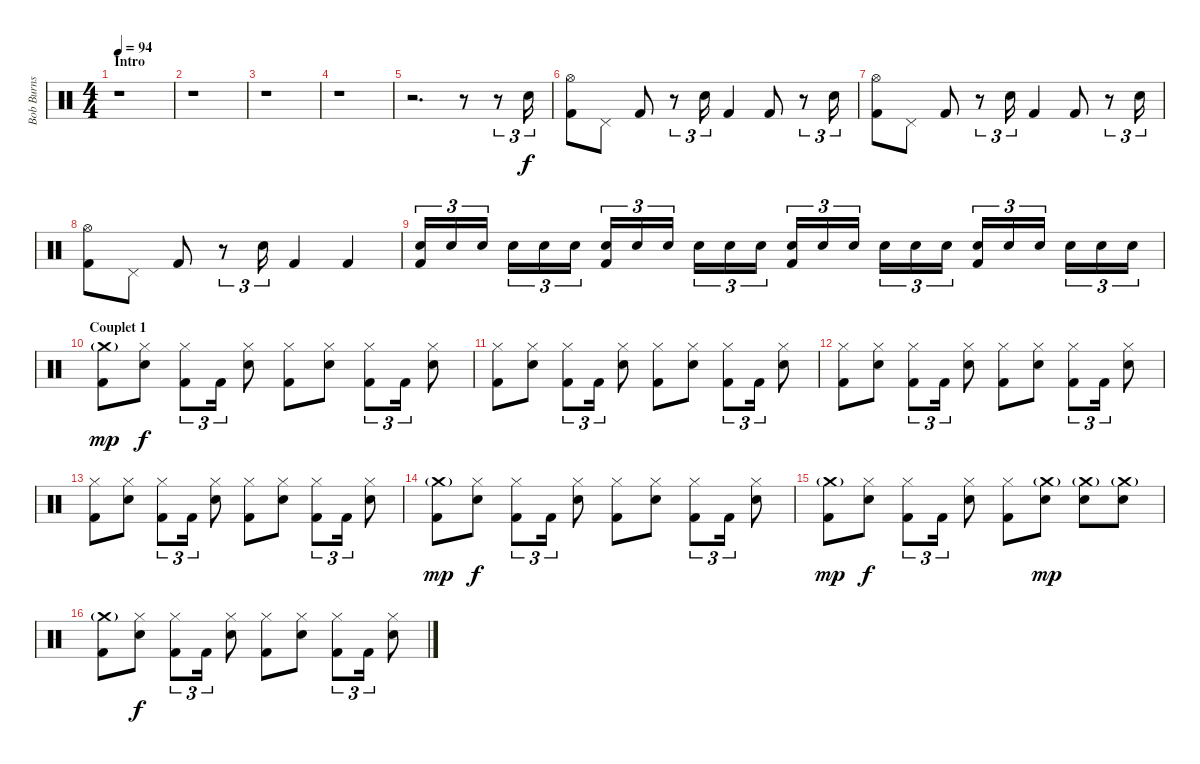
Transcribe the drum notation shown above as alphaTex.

\track ("Bob Burns (drums)" "Bob Burns ") {instrument percussion}
\staff {score}
\articulation defaults
\ts (4 4)
\section ("" "Intro")
\tempo 94
\clef neutral
\ks c
r.1{dy f} |
r.1 |
r.1 |
r.1 |
r.2{d} r.8 r.8{tu (3 2)} "Electric Snare (hit)".16{tu (3 2)} |
("Hi-Hat (open)" "Kick (hit) 2").8 "Pedal Hi-Hat (hit)".8 "Kick (hit) 2".8 r.8{tu (3 2)} "Electric Snare (hit)".16{tu (3 2)} "Kick (hit) 2".4 "Kick (hit) 2".8 r.8{tu (3 2)} "Electric Snare (hit)".16{tu (3 2)} |
("Hi-Hat (open)" "Kick (hit) 2").8 "Pedal Hi-Hat (hit)".8 "Kick (hit) 2".8 r.8{tu (3 2)} "Electric Snare (hit)".16{tu (3 2)} "Kick (hit) 2".4 "Kick (hit) 2".8 r.8{tu (3 2)} "Electric Snare (hit)".16{tu (3 2)} |
("Hi-Hat (open)" "Kick (hit) 2").8 "Pedal Hi-Hat (hit)".8 "Kick (hit) 2".8 r.8{tu (3 2)} "Electric Snare (hit)".16{tu (3 2)} "Kick (hit) 2".4 "Kick (hit) 2".4 |
("Electric Snare (hit)" "Kick (hit) 2").16{tu (3 2)} "Electric Snare (hit)".16{tu (3 2)} "Electric Snare (hit)".16{tu (3 2)} "Electric Snare (hit)".16{tu (3 2)} "Electric Snare (hit)".16{tu (3 2)} "Electric Snare (hit)".16{tu (3 2)} ("Electric Snare (hit)" "Kick (hit) 2").16{tu (3 2)} "Electric Snare (hit)".16{tu (3 2)} "Electric Snare (hit)".16{tu (3 2)} "Electric Snare (hit)".16{tu (3 2)} "Electric Snare (hit)".16{tu (3 2)} "Electric Snare (hit)".16{tu (3 2)} ("Electric Snare (hit)" "Kick (hit) 2").16{tu (3 2)} "Electric Snare (hit)".16{tu (3 2)} "Electric Snare (hit)".16{tu (3 2)} "Electric Snare (hit)".16{tu (3 2)} "Electric Snare (hit)".16{tu (3 2)} "Electric Snare (hit)".16{tu (3 2)} ("Electric Snare (hit)" "Kick (hit) 2").16{tu (3 2)} "Electric Snare (hit)".16{tu (3 2)} "Electric Snare (hit)".16{tu (3 2)} "Electric Snare (hit)".16{tu (3 2)} "Electric Snare (hit)".16{tu (3 2)} "Electric Snare (hit)".16{tu (3 2)} |
\section ("" "Couplet 1")
("Crash medium (hit)"{g} "Kick (hit) 2").8{dy mp} ("Hi-Hat (closed)" "Electric Snare (hit)").8{dy f} ("Hi-Hat (closed)" "Kick (hit) 2").8{tu (3 2)} "Kick (hit) 2".16{tu (3 2)} ("Hi-Hat (closed)" "Electric Snare (hit)").8 ("Hi-Hat (closed)" "Kick (hit) 2").8 ("Hi-Hat (closed)" "Electric Snare (hit)").8 ("Hi-Hat (closed)" "Kick (hit) 2").8{tu (3 2)} "Kick (hit) 2".16{tu (3 2)} ("Hi-Hat (closed)" "Electric Snare (hit)").8 |
("Hi-Hat (closed)" "Kick (hit) 2").8 ("Hi-Hat (closed)" "Electric Snare (hit)").8 ("Hi-Hat (closed)" "Kick (hit) 2").8{tu (3 2)} "Kick (hit) 2".16{tu (3 2)} ("Hi-Hat (closed)" "Electric Snare (hit)").8 ("Hi-Hat (closed)" "Kick (hit) 2").8 ("Hi-Hat (closed)" "Electric Snare (hit)").8 ("Hi-Hat (closed)" "Kick (hit) 2").8{tu (3 2)} "Kick (hit) 2".16{tu (3 2)} ("Hi-Hat (closed)" "Electric Snare (hit)").8 |
("Hi-Hat (closed)" "Kick (hit) 2").8 ("Hi-Hat (closed)" "Electric Snare (hit)").8 ("Hi-Hat (closed)" "Kick (hit) 2").8{tu (3 2)} "Kick (hit) 2".16{tu (3 2)} ("Hi-Hat (closed)" "Electric Snare (hit)").8 ("Hi-Hat (closed)" "Kick (hit) 2").8 ("Hi-Hat (closed)" "Electric Snare (hit)").8 ("Hi-Hat (closed)" "Kick (hit) 2").8{tu (3 2)} "Kick (hit) 2".16{tu (3 2)} ("Hi-Hat (closed)" "Electric Snare (hit)").8 |
("Hi-Hat (closed)" "Kick (hit) 2").8 ("Hi-Hat (closed)" "Electric Snare (hit)").8 ("Hi-Hat (closed)" "Kick (hit) 2").8{tu (3 2)} "Kick (hit) 2".16{tu (3 2)} ("Hi-Hat (closed)" "Electric Snare (hit)").8 ("Hi-Hat (closed)" "Kick (hit) 2").8 ("Hi-Hat (closed)" "Electric Snare (hit)").8 ("Hi-Hat (closed)" "Kick (hit) 2").8{tu (3 2)} "Kick (hit) 2".16{tu (3 2)} ("Hi-Hat (closed)" "Electric Snare (hit)").8 |
("Crash medium (hit)"{g} "Kick (hit) 2").8{dy mp} ("Hi-Hat (closed)" "Electric Snare (hit)").8{dy f} ("Hi-Hat (closed)" "Kick (hit) 2").8{tu (3 2)} "Kick (hit) 2".16{tu (3 2)} ("Hi-Hat (closed)" "Electric Snare (hit)").8 ("Hi-Hat (closed)" "Kick (hit) 2").8 ("Hi-Hat (closed)" "Electric Snare (hit)").8 ("Hi-Hat (closed)" "Kick (hit) 2").8{tu (3 2)} "Kick (hit) 2".16{tu (3 2)} ("Hi-Hat (closed)" "Electric Snare (hit)").8 |
("Crash medium (hit)"{g} "Kick (hit) 2").8{dy mp} ("Hi-Hat (closed)" "Electric Snare (hit)").8{dy f} ("Hi-Hat (closed)" "Kick (hit) 2").8{tu (3 2)} "Kick (hit) 2".16{tu (3 2)} ("Hi-Hat (closed)" "Electric Snare (hit)").8 ("Hi-Hat (closed)" "Kick (hit) 2").8 ("Crash medium (hit)"{g} "Electric Snare (hit)").8{dy mp} ("Crash medium (hit)"{g} "Electric Snare (hit)").8 ("Crash medium (hit)"{g} "Electric Snare (hit)").8 |
("Crash medium (hit)"{g} "Kick (hit) 2").8 ("Hi-Hat (closed)" "Electric Snare (hit)").8{dy f} ("Hi-Hat (closed)" "Kick (hit) 2").8{tu (3 2)} "Kick (hit) 2".16{tu (3 2)} ("Hi-Hat (closed)" "Electric Snare (hit)").8 ("Hi-Hat (closed)" "Kick (hit) 2").8 ("Hi-Hat (closed)" "Electric Snare (hit)").8 ("Hi-Hat (closed)" "Kick (hit) 2").8{tu (3 2)} "Kick (hit) 2".16{tu (3 2)} ("Hi-Hat (closed)" "Electric Snare (hit)").8
